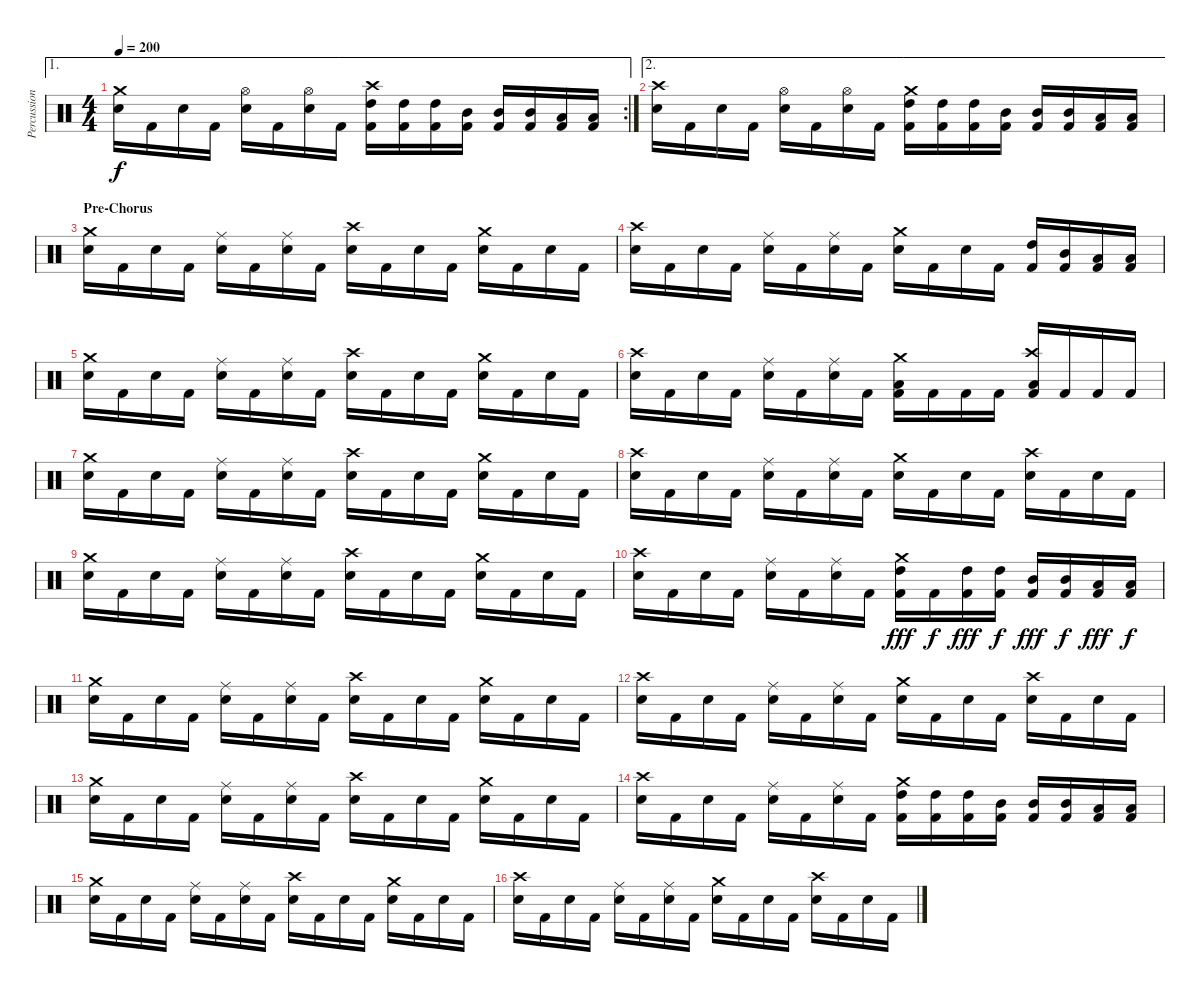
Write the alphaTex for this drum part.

\track ("Percussion" "Percussion") {instrument percussion}
\staff {score}
\articulation defaults
\ae 1
\rc 2
\ts (4 4)
\tempo 200
\clef neutral
\ks c
("Snare (hit) 2" "Crash medium (hit)").16{dy f} "Kick (hit) 2".16 "Snare (hit) 2".16 "Kick (hit) 2".16 ("Snare (hit) 2" "Hi-Hat (open)").16 "Kick (hit) 2".16 ("Snare (hit) 2" "Hi-Hat (open)").16 "Kick (hit) 2".16 ("Kick (hit) 2" "High Tom (hit)" "Crash high (hit)").16 ("Kick (hit) 2" "High Tom (hit)").16 ("Kick (hit) 2" "High Tom (hit)").16 ("Kick (hit) 2" "Mid Tom (hit)").16 ("Kick (hit) 2" "Mid Tom (hit)").16 ("Kick (hit) 2" "Mid Tom (hit)").16 ("Kick (hit) 2" "Low Tom (hit)").16 ("Kick (hit) 2" "Low Tom (hit)").16 |
\ae 2
("Snare (hit) 2" "Crash high (hit)").16 "Kick (hit) 2".16 "Snare (hit) 2".16 "Kick (hit) 2".16 ("Snare (hit) 2" "Hi-Hat (open)").16 "Kick (hit) 2".16 ("Snare (hit) 2" "Hi-Hat (open)").16 "Kick (hit) 2".16 ("Kick (hit) 2" "High Tom (hit)" "Crash medium (hit)").16 ("Kick (hit) 2" "High Tom (hit)").16 ("Kick (hit) 2" "High Tom (hit)").16 ("Kick (hit) 2" "Mid Tom (hit)").16 ("Kick (hit) 2" "Mid Tom (hit)").16 ("Kick (hit) 2" "Mid Tom (hit)").16 ("Kick (hit) 2" "Low Tom (hit)").16 ("Kick (hit) 2" "Low Tom (hit)").16 |
\section ("" "Pre-Chorus")
("Snare (hit) 2" "Crash medium (hit)").16 "Kick (hit) 2".16 "Snare (hit) 2".16 "Kick (hit) 2".16 ("Snare (hit) 2" "Ride (middle)").16 "Kick (hit) 2".16 ("Snare (hit) 2" "Ride (middle)").16 "Kick (hit) 2".16 ("Snare (hit) 2" "Crash high (hit)").16 "Kick (hit) 2".16 "Snare (hit) 2".16 "Kick (hit) 2".16 ("Snare (hit) 2" "Crash medium (hit)").16 "Kick (hit) 2".16 "Snare (hit) 2".16 "Kick (hit) 2".16 |
("Snare (hit) 2" "Crash high (hit)").16 "Kick (hit) 2".16 "Snare (hit) 2".16 "Kick (hit) 2".16 ("Snare (hit) 2" "Ride (middle)").16 "Kick (hit) 2".16 ("Snare (hit) 2" "Ride (middle)").16 "Kick (hit) 2".16 ("Snare (hit) 2" "Crash medium (hit)").16 "Kick (hit) 2".16 "Snare (hit) 2".16 "Kick (hit) 2".16 ("Kick (hit) 2" "High Tom (hit)").16 ("Kick (hit) 2" "Mid Tom (hit)").16 ("Kick (hit) 2" "Low Tom (hit)").16 ("Kick (hit) 2" "Low Tom (hit)").16 |
("Snare (hit) 2" "Crash medium (hit)").16 "Kick (hit) 2".16 "Snare (hit) 2".16 "Kick (hit) 2".16 ("Snare (hit) 2" "Ride (middle)").16 "Kick (hit) 2".16 ("Snare (hit) 2" "Ride (middle)").16 "Kick (hit) 2".16 ("Snare (hit) 2" "Crash high (hit)").16 "Kick (hit) 2".16 "Snare (hit) 2".16 "Kick (hit) 2".16 ("Snare (hit) 2" "Crash medium (hit)").16 "Kick (hit) 2".16 "Snare (hit) 2".16 "Kick (hit) 2".16 |
("Snare (hit) 2" "Crash high (hit)").16 "Kick (hit) 2".16 "Snare (hit) 2".16 "Kick (hit) 2".16 ("Snare (hit) 2" "Ride (middle)").16 "Kick (hit) 2".16 ("Snare (hit) 2" "Ride (middle)").16 "Kick (hit) 2".16 ("Kick (hit) 2" "Low Tom (hit)" "Crash medium (hit)").16 "Kick (hit) 2".16 "Kick (hit) 2".16 "Kick (hit) 2".16 ("Kick (hit) 2" "Low Tom (hit)" "Crash high (hit)").16 "Kick (hit) 2".16 "Kick (hit) 2".16 "Kick (hit) 2".16 |
("Snare (hit) 2" "Crash medium (hit)").16 "Kick (hit) 2".16 "Snare (hit) 2".16 "Kick (hit) 2".16 ("Snare (hit) 2" "Ride (middle)").16 "Kick (hit) 2".16 ("Snare (hit) 2" "Ride (middle)").16 "Kick (hit) 2".16 ("Snare (hit) 2" "Crash high (hit)").16 "Kick (hit) 2".16 "Snare (hit) 2".16 "Kick (hit) 2".16 ("Snare (hit) 2" "Crash medium (hit)").16 "Kick (hit) 2".16 "Snare (hit) 2".16 "Kick (hit) 2".16 |
("Snare (hit) 2" "Crash high (hit)").16 "Kick (hit) 2".16 "Snare (hit) 2".16 "Kick (hit) 2".16 ("Snare (hit) 2" "Ride (middle)").16 "Kick (hit) 2".16 ("Snare (hit) 2" "Ride (middle)").16 "Kick (hit) 2".16 ("Snare (hit) 2" "Crash medium (hit)").16 "Kick (hit) 2".16 "Snare (hit) 2".16 "Kick (hit) 2".16 ("Snare (hit) 2" "Crash high (hit)").16 "Kick (hit) 2".16 "Snare (hit) 2".16 "Kick (hit) 2".16 |
("Snare (hit) 2" "Crash medium (hit)").16 "Kick (hit) 2".16 "Snare (hit) 2".16 "Kick (hit) 2".16 ("Snare (hit) 2" "Ride (middle)").16 "Kick (hit) 2".16 ("Snare (hit) 2" "Ride (middle)").16 "Kick (hit) 2".16 ("Snare (hit) 2" "Crash high (hit)").16 "Kick (hit) 2".16 "Snare (hit) 2".16 "Kick (hit) 2".16 ("Snare (hit) 2" "Crash medium (hit)").16 "Kick (hit) 2".16 "Snare (hit) 2".16 "Kick (hit) 2".16 |
("Snare (hit) 2" "Crash high (hit)").16 "Kick (hit) 2".16 "Snare (hit) 2".16 "Kick (hit) 2".16 ("Snare (hit) 2" "Ride (middle)").16 "Kick (hit) 2".16 ("Snare (hit) 2" "Ride (middle)").16 "Kick (hit) 2".16 ("Kick (hit) 2" "High Tom (hit)" "Crash medium (hit)").16{dy fff} "Kick (hit) 2".16{dy f} ("Kick (hit) 2" "High Tom (hit)").16{dy fff} ("Kick (hit) 2" "High Tom (hit)").16{dy f} ("Kick (hit) 2" "Mid Tom (hit)").16{dy fff} ("Kick (hit) 2" "Mid Tom (hit)").16{dy f} ("Kick (hit) 2" "Low Tom (hit)").16{dy fff} ("Kick (hit) 2" "Low Tom (hit)").16{dy f} |
("Snare (hit) 2" "Crash medium (hit)").16 "Kick (hit) 2".16 "Snare (hit) 2".16 "Kick (hit) 2".16 ("Snare (hit) 2" "Ride (middle)").16 "Kick (hit) 2".16 ("Snare (hit) 2" "Ride (middle)").16 "Kick (hit) 2".16 ("Snare (hit) 2" "Crash high (hit)").16 "Kick (hit) 2".16 "Snare (hit) 2".16 "Kick (hit) 2".16 ("Snare (hit) 2" "Crash medium (hit)").16 "Kick (hit) 2".16 "Snare (hit) 2".16 "Kick (hit) 2".16 |
("Snare (hit) 2" "Crash high (hit)").16 "Kick (hit) 2".16 "Snare (hit) 2".16 "Kick (hit) 2".16 ("Snare (hit) 2" "Ride (middle)").16 "Kick (hit) 2".16 ("Snare (hit) 2" "Ride (middle)").16 "Kick (hit) 2".16 ("Snare (hit) 2" "Crash medium (hit)").16 "Kick (hit) 2".16 "Snare (hit) 2".16 "Kick (hit) 2".16 ("Snare (hit) 2" "Crash high (hit)").16 "Kick (hit) 2".16 "Snare (hit) 2".16 "Kick (hit) 2".16 |
("Snare (hit) 2" "Crash medium (hit)").16 "Kick (hit) 2".16 "Snare (hit) 2".16 "Kick (hit) 2".16 ("Snare (hit) 2" "Ride (middle)").16 "Kick (hit) 2".16 ("Snare (hit) 2" "Ride (middle)").16 "Kick (hit) 2".16 ("Snare (hit) 2" "Crash high (hit)").16 "Kick (hit) 2".16 "Snare (hit) 2".16 "Kick (hit) 2".16 ("Snare (hit) 2" "Crash medium (hit)").16 "Kick (hit) 2".16 "Snare (hit) 2".16 "Kick (hit) 2".16 |
("Snare (hit) 2" "Crash high (hit)").16 "Kick (hit) 2".16 "Snare (hit) 2".16 "Kick (hit) 2".16 ("Snare (hit) 2" "Ride (middle)").16 "Kick (hit) 2".16 ("Snare (hit) 2" "Ride (middle)").16 "Kick (hit) 2".16 ("Kick (hit) 2" "High Tom (hit)" "Crash medium (hit)").16 ("Kick (hit) 2" "High Tom (hit)").16 ("Kick (hit) 2" "High Tom (hit)").16 ("Kick (hit) 2" "Mid Tom (hit)").16 ("Kick (hit) 2" "Mid Tom (hit)").16 ("Kick (hit) 2" "Mid Tom (hit)").16 ("Kick (hit) 2" "Low Tom (hit)").16 ("Kick (hit) 2" "Low Tom (hit)").16 |
("Snare (hit) 2" "Crash medium (hit)").16 "Kick (hit) 2".16 "Snare (hit) 2".16 "Kick (hit) 2".16 ("Snare (hit) 2" "Ride (middle)").16 "Kick (hit) 2".16 ("Snare (hit) 2" "Ride (middle)").16 "Kick (hit) 2".16 ("Snare (hit) 2" "Crash high (hit)").16 "Kick (hit) 2".16 "Snare (hit) 2".16 "Kick (hit) 2".16 ("Snare (hit) 2" "Crash medium (hit)").16 "Kick (hit) 2".16 "Snare (hit) 2".16 "Kick (hit) 2".16 |
("Snare (hit) 2" "Crash high (hit)").16 "Kick (hit) 2".16 "Snare (hit) 2".16 "Kick (hit) 2".16 ("Snare (hit) 2" "Ride (middle)").16 "Kick (hit) 2".16 ("Snare (hit) 2" "Ride (middle)").16 "Kick (hit) 2".16 ("Snare (hit) 2" "Crash medium (hit)").16 "Kick (hit) 2".16 "Snare (hit) 2".16 "Kick (hit) 2".16 ("Snare (hit) 2" "Crash high (hit)").16 "Kick (hit) 2".16 "Snare (hit) 2".16 "Kick (hit) 2".16
